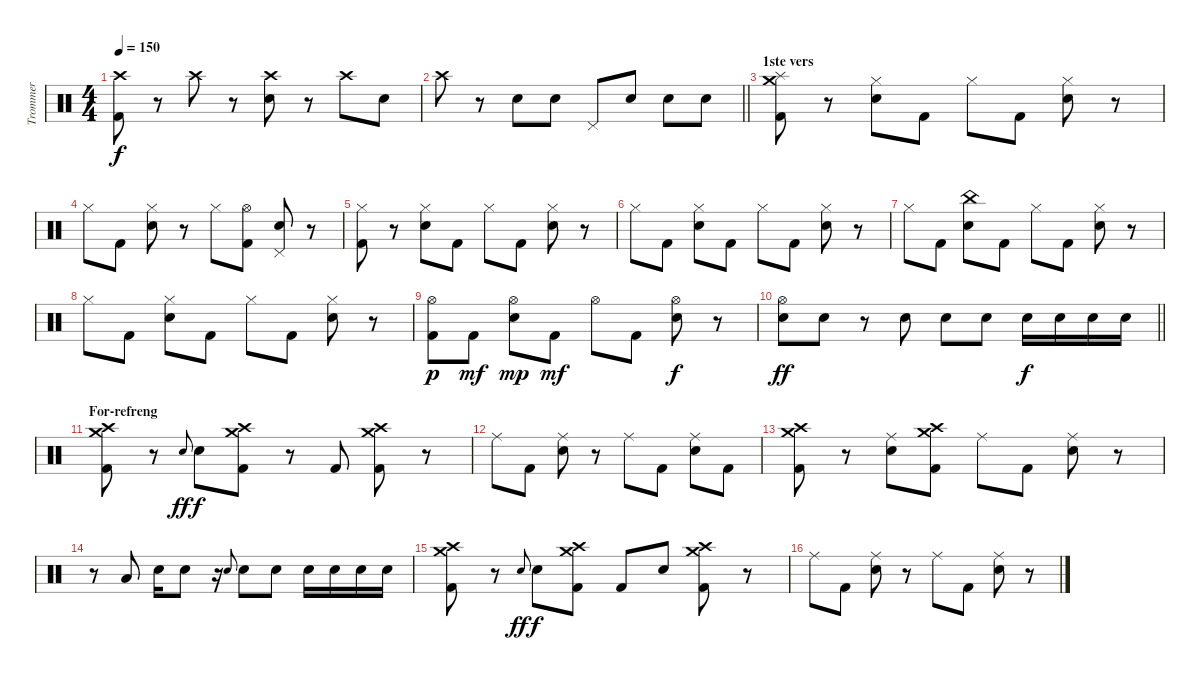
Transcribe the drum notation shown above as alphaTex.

\track ("Trommer" "Trommer") {instrument percussion}
\staff {score}
\articulation defaults
\ts (4 4)
\tempo 150
\clef neutral
\ks c
("Crash high (hit)" "Kick (hit) 2").8{dy f} r.8 "Crash high (hit)".8 r.8 ("Crash high (hit)" "Electric Snare (hit)").8 r.8 "Crash high (hit)".8 "Electric Snare (hit)".8 |
\barLineRight lightlight "Crash high (hit)".8
r.8 "Electric Snare (hit)".8 "Electric Snare (hit)".8 "Pedal Hi-Hat (hit)".8 "Electric Snare (hit)".8 "Electric Snare (hit)".8 "Electric Snare (hit)".8 |
\section ("" "1ste vers")
("Crash medium (hit)" "Splash (hit)" "Kick (hit) 2").8 r.8 ("Hi-Hat (closed)" "Electric Snare (hit)").8 "Kick (hit) 2".8 "Hi-Hat (closed)".8 "Kick (hit) 2".8 ("Hi-Hat (closed)" "Electric Snare (hit)").8 r.8 |
"Hi-Hat (closed)".8 "Kick (hit) 2".8 ("Hi-Hat (closed)" "Electric Snare (hit)").8 r.8 "Hi-Hat (closed)".8 ("Hi-Hat (open)" "Kick (hit) 2").8 ("Pedal Hi-Hat (hit)" "Electric Snare (hit)").8 r.8 |
("Hi-Hat (closed)" "Kick (hit) 2").8 r.8 ("Hi-Hat (closed)" "Electric Snare (hit)").8 "Kick (hit) 2".8 "Hi-Hat (closed)".8 "Kick (hit) 2".8 ("Hi-Hat (closed)" "Electric Snare (hit)").8 r.8 |
"Hi-Hat (closed)".8 "Kick (hit) 2".8 ("Hi-Hat (closed)" "Electric Snare (hit)").8 "Kick (hit) 2".8 "Hi-Hat (closed)".8 "Kick (hit) 2".8 ("Hi-Hat (closed)" "Electric Snare (hit)").8 r.8 |
"Hi-Hat (closed)".8 "Kick (hit) 2".8 ("China (hit)" "Electric Snare (hit)").8 "Kick (hit) 2".8 "Hi-Hat (closed)".8 "Kick (hit) 2".8 ("Hi-Hat (closed)" "Electric Snare (hit)").8 r.8 |
"Hi-Hat (closed)".8 "Kick (hit) 2".8 ("Hi-Hat (closed)" "Electric Snare (hit)").8 "Kick (hit) 2".8 "Hi-Hat (closed)".8 "Kick (hit) 2".8 ("Hi-Hat (closed)" "Electric Snare (hit)").8 r.8 |
("Hi-Hat (open)" "Kick (hit) 2").8{dy p} "Kick (hit) 2".8{dy mf} ("Hi-Hat (open)" "Electric Snare (hit)").8{dy mp} "Kick (hit) 2".8{dy mf} "Hi-Hat (open)".8 "Kick (hit) 2".8 ("Hi-Hat (open)" "Electric Snare (hit)").8{dy f} r.8 |
\barLineRight lightlight
("Hi-Hat (open)" "Electric Snare (hit)").8{dy ff} "Electric Snare (hit)".8 r.8 "Electric Snare (hit)".8 "Electric Snare (hit)".8 "Electric Snare (hit)".8 "Electric Snare (hit)".16{dy f} "Electric Snare (hit)".16 "Electric Snare (hit)".16 "Electric Snare (hit)".16 |
\section ("" "For-refreng")
("Crash medium (hit)" "Crash high (hit)" "Kick (hit) 2").8 r.8 "Electric Snare (hit)".8{gr onbeat dy ff} "Electric Snare (hit)".8{dy f} ("Crash medium (hit)" "Crash high (hit)" "Kick (hit) 2").8 r.8 "Kick (hit) 2".8 ("Crash medium (hit)" "Crash high (hit)" "Kick (hit) 2").8 r.8 |
"Ride (middle)".8 "Kick (hit) 2".8 ("Ride (middle)" "Electric Snare (hit)").8 r.8 "Ride (middle)".8 "Kick (hit) 2".8 ("Ride (middle)" "Electric Snare (hit)").8 "Kick (hit) 2".8 |
("Crash medium (hit)" "Crash high (hit)" "Kick (hit) 2").8 r.8 ("Ride (middle)" "Electric Snare (hit)").8 ("Crash medium (hit)" "Crash high (hit)" "Kick (hit) 2").8 "Ride (middle)".8 "Kick (hit) 2".8 ("Ride (middle)" "Electric Snare (hit)").8 r.8 |
r.8 "Low Tom (hit)".8 "Electric Snare (hit)".16 "Electric Snare (hit)".8 r.16 "Electric Snare (hit)".8{gr onbeat} "Electric Snare (hit)".8 "Electric Snare (hit)".8 "Electric Snare (hit)".16 "Electric Snare (hit)".16 "Electric Snare (hit)".16 "Electric Snare (hit)".16 |
("Crash medium (hit)" "Crash high (hit)" "Kick (hit) 2").8 r.8 "Electric Snare (hit)".8{gr onbeat dy ff} "Electric Snare (hit)".8{dy f} ("Crash medium (hit)" "Crash high (hit)" "Kick (hit) 2").8 "Kick (hit) 2".8 "Electric Snare (hit)".8 ("Crash medium (hit)" "Crash high (hit)" "Kick (hit) 2").8 r.8 |
"Ride (middle)".8 "Kick (hit) 2".8 ("Ride (middle)" "Electric Snare (hit)").8 r.8 "Ride (middle)".8 "Kick (hit) 2".8 ("Ride (middle)" "Electric Snare (hit)").8 r.8
